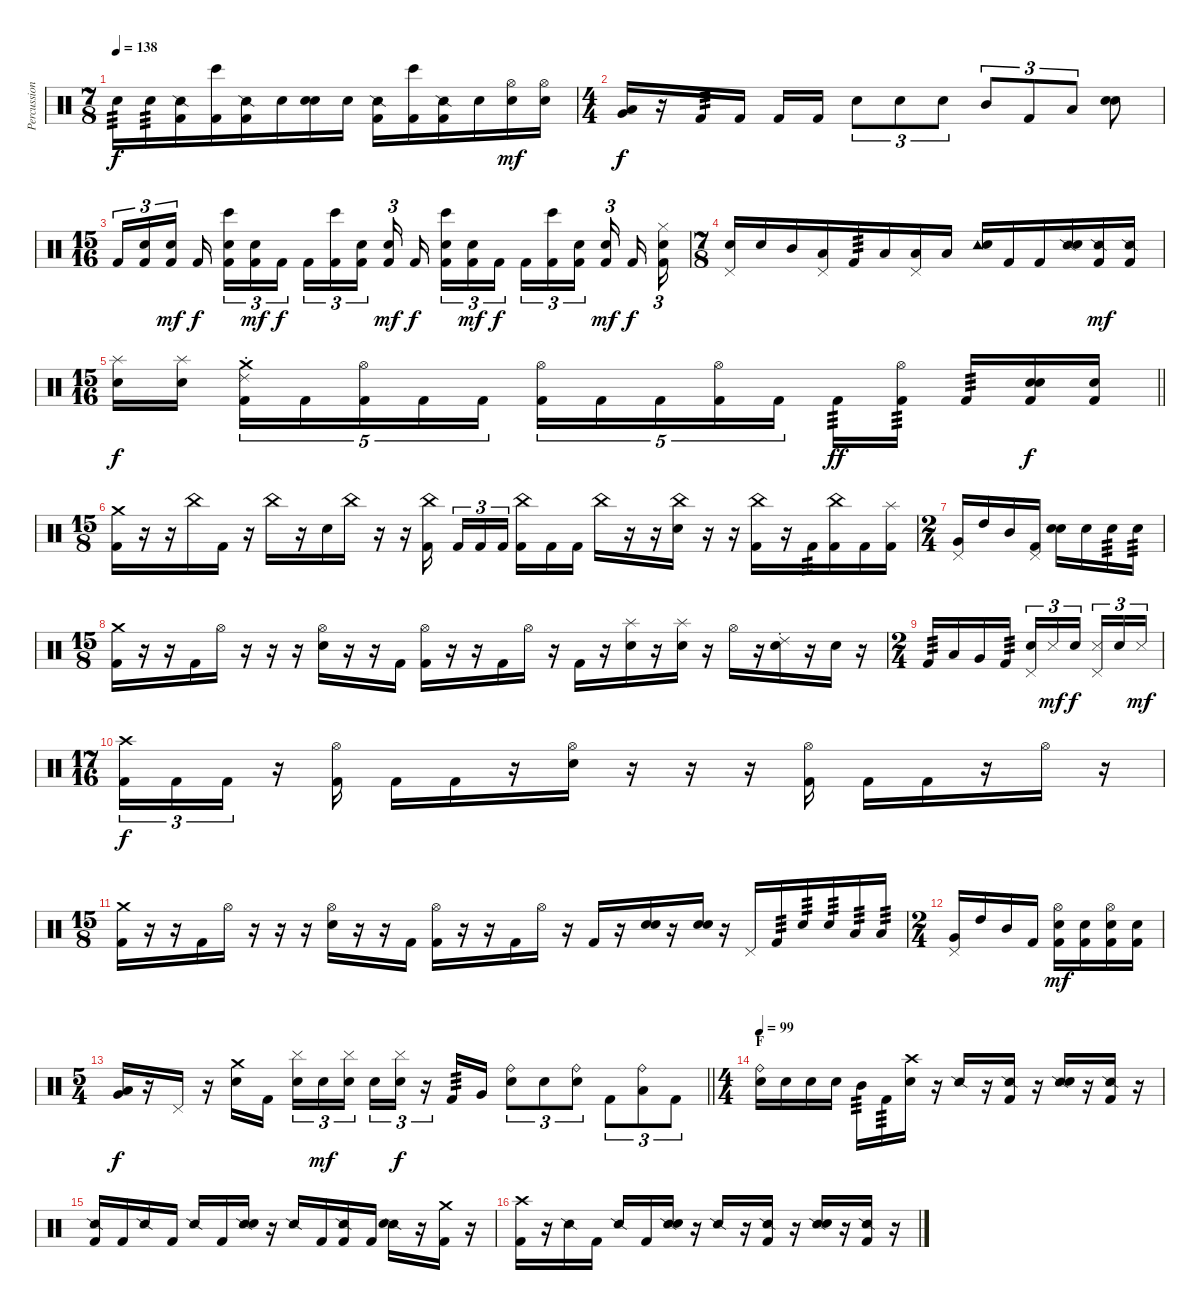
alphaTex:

\track ("Percussion" "Percussion") {instrument percussion}
\staff {score}
\articulation defaults
\ts (7 8)
\tempo 138
\clef neutral
\ks c "Snare (hit) 2".16{tp 3 dy f} "Snare (hit) 2".16{tp 3}
("Snare (side stick) 2" "Kick (hit) 2").16 ("Bongo High (hit)" "Kick (hit) 2").16 ("Snare (side stick) 2" "Kick (hit) 2").16 "Snare (hit) 2".16 ("Snare (hit)" "Snare (hit) 2").16 "Snare (hit) 2".16 ("Snare (side stick) 2" "Kick (hit) 2").16 ("Bongo High (hit)" "Kick (hit) 2").16 ("Snare (side stick) 2" "Kick (hit) 2").16 "Snare (hit) 2".16 ("Hi-Hat (open)" "Snare (hit) 2").16{dy mf} ("Hi-Hat (open)" "Snare (hit) 2").16 |
\ts (4 4)
("Low Tom (hit)" "Very Low Tom (hit)").16{bu 60 dy f} r.16 "Kick (hit) 2".16{tp 3} "Kick (hit) 2".16 "Kick (hit) 2".16 "Kick (hit) 2".16 "Snare (hit) 2".8{tu (3 2)} "Snare (hit) 2".8{tu (3 2)} "Snare (hit) 2".8{tu (3 2)} "Mid Tom (hit)".8{tu (3 2)} "Kick (hit) 2".8{tu (3 2)} "Low Tom (hit)".8{tu (3 2)} ("Snare (hit)" "Snare (hit) 2").8 |
\ts (15 16)
"Kick (hit) 2".16{tu (3 2)} ("Snare (hit) 2" "Kick (hit) 2").16{tu (3 2)} ("Snare (hit) 2" "Kick (hit) 2").16{tu (3 2) dy mf beam splitsecondary} "Kick (hit) 2".16{dy f} ("Bongo High (hit)" "Snare (hit) 2" "Kick (hit) 2").16{tu (3 2)} ("Snare (hit) 2" "Kick (hit) 2").16{tu (3 2) dy mf} "Kick (hit) 2".16{tu (3 2) dy f beam splitsecondary} "Kick (hit) 2".16{tu (3 2)} ("Bongo High (hit)" "Kick (hit) 2").16{tu (3 2)} ("Snare (hit) 2" "Kick (hit) 2").16{tu (3 2) beam splitsecondary} ("Snare (hit) 2" "Kick (hit) 2").16{tu (3 2) dy mf beam splitsecondary} "Kick (hit) 2".16{dy f} ("Bongo High (hit)" "Snare (hit) 2" "Kick (hit) 2").16{tu (3 2)} ("Snare (hit) 2" "Kick (hit) 2").16{tu (3 2) dy mf} "Kick (hit) 2".16{tu (3 2) dy f beam splitsecondary} "Kick (hit) 2".16{tu (3 2)} ("Bongo High (hit)" "Kick (hit) 2").16{tu (3 2)} ("Snare (hit) 2" "Kick (hit) 2").16{tu (3 2) beam splitsecondary} ("Snare (hit) 2" "Kick (hit) 2").16{tu (3 2) dy mf beam splitsecondary} "Kick (hit) 2".16{dy f} ("Hi-Hat (closed)" "Snare (hit) 2" "Kick (hit) 2").16{tu (3 2)} |
\ts (7 8)
("Pedal Hi-Hat (hit)" "Snare (hit) 2").16 "Snare (hit) 2".16 "Mid Tom (hit)".16 ("Pedal Hi-Hat (hit)" "Low Tom (hit)").16 "Kick (hit) 2".16{tp 3} "Low Tom (hit)".16 ("Pedal Hi-Hat (hit)" "Low Tom (hit)").16 "Low Tom (hit)".16 ("Tambourine (hit)" "Snare (hit) 2").16 "Kick (hit) 2".16 "Kick (hit) 2".16 ("Snare (side stick) 2" "Snare (hit) 2").16 ("Snare (side stick) 2" "Kick (hit) 2").16{dy mf} ("Snare (side stick) 2" "Kick (hit) 2").16 |
\ts (15 16)
\barLineRight lightlight
("Splash (hit)" "Snare (hit) 2").16{dy f} ("Splash (hit)" "Snare (hit) 2").16{beam splitsecondary} ("Crash medium (hit)" "Ride (choke) 2" "Kick (hit) 2").16{tu (5 4)} "Kick (hit) 2".16{tu (5 4)} ("Hi-Hat (open)" "Kick (hit) 2").16{tu (5 4)} "Kick (hit) 2".16{tu (5 4)} "Kick (hit) 2".16{tu (5 4)} ("Hi-Hat (open)" "Kick (hit) 2").16{tu (5 4)} "Kick (hit) 2".16{tu (5 4)} "Kick (hit) 2".16{tu (5 4)} ("Hi-Hat (open)" "Kick (hit) 2").16{tu (5 4)} "Kick (hit) 2".16{tu (5 4) beam splitsecondary} "Kick (hit) 2".16{tp 3 dy ff} ("Hi-Hat (open)" "Kick (hit) 2").16{tp 3} "Kick (hit) 2".16{tp 3} ("Snare (hit)" "Snare (hit) 2" "Kick (hit) 2").16{dy f} ("Snare (hit) 2" "Kick (hit) 2").16 |
\ts (15 8)
("Crash medium (hit)" "Kick (hit) 2").16 r.16 r.16 "China (hit)".16 "Kick (hit) 2".16 r.16 "China (hit)".16 r.16 "Snare (hit) 2".16 "China (hit)".16 r.16 r.16 ("China (hit)" "Kick (hit) 2").16{beam splitsecondary} "Kick (hit) 2".16{tu (3 2)} "Kick (hit) 2".16{tu (3 2)} "Kick (hit) 2".16{tu (3 2) beam splitsecondary} ("China (hit)" "Kick (hit) 2").16 "Kick (hit) 2".16 "Kick (hit) 2".16 "China (hit)".16 r.16 r.16 ("China (hit)" "Snare (hit) 2").16 r.16 r.16 ("China (hit)" "Kick (hit) 2").16 r.16 "Kick (hit) 2".16{tp 3} ("China (hit)" "Kick (hit) 2").16 "Kick (hit) 2".16 ("Splash (hit)" "Kick (hit) 2").16 |
\ts (2 4)
("Pedal Hi-Hat (hit)" "Very Low Tom (hit)").16 "High Tom (hit)".16 "Mid Tom (hit)".16 ("Pedal Hi-Hat (hit)" "Kick (hit) 2").16 ("Snare (hit)" "Snare (hit) 2").16 "Snare (hit) 2".16 "Snare (hit) 2".16{tp 3} "Snare (hit) 2".16{tp 3} |
\ts (15 8)
("Crash medium (hit)" "Kick (hit) 2").16 r.16 r.16 "Kick (hit) 2".16 "Hi-Hat (open)".16 r.16 r.16 r.16 ("Hi-Hat (open)" "Snare (hit) 2").16 r.16 r.16 "Kick (hit) 2".16 ("Hi-Hat (open)" "Kick (hit) 2").16 r.16 r.16 "Kick (hit) 2".16 "Hi-Hat (open)".16 r.16 "Kick (hit) 2".16 r.16 ("Splash (hit)" "Snare (hit) 2").16 r.16 ("Splash (hit)" "Snare (hit) 2").16 r.16 "Hi-Hat (open)".16 r.16 ("Ride (choke) 2" "Snare (hit) 2").16 r.16 "Snare (hit)".16 r.16 |
\ts (2 4)
"Kick (hit) 2".16{tp 3} "Low Tom (hit)".16 "Very Low Tom (hit)".16 "Kick (hit) 2".16{tp 3} ("Pedal Hi-Hat (hit)" "Snare (hit) 2").16{tu (3 2)} "Metronome (hit)".16{tu (3 2) dy mf} "Snare (hit) 2".16{tu (3 2) dy f beam splitsecondary} ("Pedal Hi-Hat (hit)" "Metronome (hit)").16{tu (3 2)} "Snare (hit) 2".16{tu (3 2)} "Metronome (hit)".16{tu (3 2) dy mf} |
\ts (17 16)
("Crash high (hit)" "Kick (hit) 2").16{tu (3 2) dy f} "Kick (hit) 2".16{tu (3 2)} "Kick (hit) 2".16{tu (3 2)} r.16 ("Hi-Hat (open)" "Kick (hit) 2").16 "Kick (hit) 2".16 "Kick (hit) 2".16 r.16 ("Hi-Hat (open)" "Snare (hit) 2").16 r.16 r.16 r.16 ("Hi-Hat (open)" "Kick (hit) 2").16 "Kick (hit) 2".16 "Kick (hit) 2".16 r.16 "Hi-Hat (open)".16 r.16 |
\ts (15 8)
("Crash medium (hit)" "Kick (hit) 2").16 r.16 r.16 "Kick (hit) 2".16 "Hi-Hat (open)".16 r.16 r.16 r.16 ("Hi-Hat (open)" "Snare (hit) 2").16 r.16 r.16 "Kick (hit) 2".16 ("Hi-Hat (open)" "Kick (hit) 2").16 r.16 r.16 "Kick (hit) 2".16 "Hi-Hat (open)".16 r.16 "Kick (hit) 2".16 r.16 ("Snare (hit)" "Snare (hit) 2").16 r.16 ("Snare (hit)" "Snare (hit) 2").16 r.16 "Pedal Hi-Hat (hit)".16 "Kick (hit) 2".16{tp 3} "Snare (hit) 2".16{tp 3} "Snare (hit) 2".16{tp 3} "Low Tom (hit)".16{tp 3} "Low Tom (hit)".16{tp 3} |
\ts (2 4)
("Pedal Hi-Hat (hit)" "Very Low Tom (hit)").16 "High Tom (hit)".16 "Mid Tom (hit)".16 "Kick (hit) 2".16 ("Hi-Hat (open)" "Snare (hit) 2" "Kick (hit) 2").16{dy mf} ("Snare (hit) 2" "Kick (hit) 2").16 ("Hi-Hat (open)" "Snare (hit) 2" "Kick (hit) 2").16 ("Snare (hit) 2" "Kick (hit) 2").16 |
\ts (5 4)
\barLineRight lightlight
("Low Tom (hit)" "Very Low Tom (hit)").16{bu 60 dy f} r.16 "Pedal Hi-Hat (hit)".16 r.16 ("Crash medium (hit)" "Snare (hit) 2").16 "Kick (hit) 2".16{beam splitsecondary} ("Cymbal (hit)" "Snare (hit) 2").16{tu (3 2)} "Snare (hit) 2".16{tu (3 2) dy mf} ("Cymbal (hit)" "Snare (hit) 2").16{tu (3 2)} "Snare (hit) 2".16{tu (3 2)} ("Cymbal (hit)" "Snare (hit) 2").16{tu (3 2) dy f} r.16{tu (3 2)} "Kick (hit) 2".16{tp 3} "Very Low Tom (hit)".16 ("Ride (bell)" "Snare (hit) 2").8{tu (3 2)} "Snare (hit) 2".8{tu (3 2)} ("Ride (bell)" "Snare (hit) 2").8{tu (3 2)} "Kick (hit) 2".8{tu (3 2)} ("Ride (bell)" "Low Tom (hit)").8{tu (3 2)} "Kick (hit) 2".8{tu (3 2)} |
\ts (4 4)
\section ("" "F")
\tempo 99
("Ride (bell)" "Snare (hit) 2").16 "Snare (hit) 2".16 "Snare (hit) 2".16 "Snare (hit) 2".16 "Mid Tom (hit)".16{tp 3} "Kick (hit) 2".16{tp 3} ("Crash high (hit)" "Snare (hit) 2").16 r.16 "Snare (side stick) 2".16 r.16 ("Snare (side stick) 2" "Kick (hit) 2").16 r.16 ("Snare (side stick) 2" "Snare (hit) 2").16 r.16 ("Snare (side stick) 2" "Kick (hit) 2").16 r.16 |
("Snare (side stick) 2" "Kick (hit) 2").16 "Kick (hit) 2".16 "Snare (side stick) 2".16 "Kick (hit) 2".16 "Snare (side stick) 2".16 "Kick (hit) 2".16 ("Snare (side stick) 2" "Snare (hit) 2").16 r.16 "Snare (side stick) 2".16 "Kick (hit) 2".16 ("Snare (side stick) 2" "Kick (hit) 2").16 "Kick (hit) 2".16 ("Snare (side stick) 2" "Snare (hit) 2").16 r.16 ("Crash medium (hit)" "Kick (hit) 2").16 r.16 |
("Crash high (hit)" "Kick (hit) 2").16 r.16 "Snare (side stick) 2".16 "Kick (hit) 2".16 "Snare (side stick) 2".16 "Kick (hit) 2".16 ("Snare (side stick) 2" "Snare (hit) 2").16 r.16 "Snare (side stick) 2".16 r.16 ("Snare (side stick) 2" "Kick (hit) 2").16 r.16 ("Snare (side stick) 2" "Snare (hit) 2").16 r.16 ("Snare (side stick) 2" "Kick (hit) 2").16 r.16
